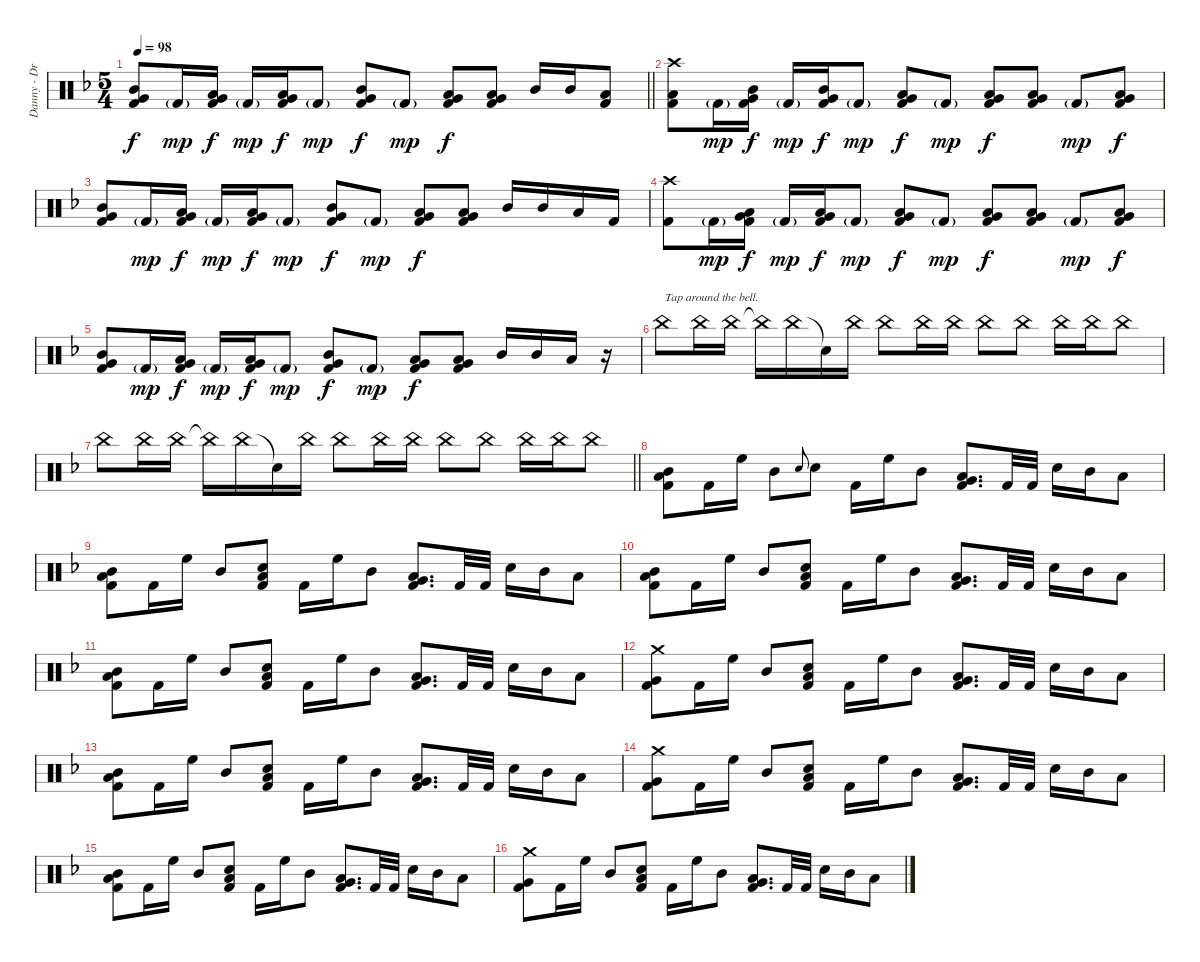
\track ("Danny - Drums" "Danny - Dr") {instrument percussion}
\staff {score}
\articulation defaults
\ts (5 4)
\tempo 98
\clef neutral
\barLineRight lightlight
\ks dminor
("Mid Tom (hit)" "Very Low Tom (hit)" "Kick (hit) 2").8{dy f} "Kick (hit) 2"{g}.16{dy mp} ("Low Tom (hit)" "Very Low Tom (hit)" "Kick (hit) 2").16{dy f} "Kick (hit) 2"{g}.16{dy mp} ("Low Tom (hit)" "Very Low Tom (hit)" "Kick (hit) 2").16{dy f} "Kick (hit) 2"{g}.8{dy mp} ("Mid Tom (hit)" "Very Low Tom (hit)" "Kick (hit) 2").8{dy f} "Kick (hit) 2"{g}.8{dy mp} ("Low Tom (hit)" "Very Low Tom (hit)" "Kick (hit) 2").8{dy f} ("Low Tom (hit)" "Very Low Tom (hit)" "Kick (hit) 2").8 "Mid Tom (hit)".16 "Mid Tom (hit)".16 ("Low Tom (hit)" "Kick (hit) 2").8 |
("Crash high (hit)" "Low Tom (hit)" "Kick (hit) 2").8 "Kick (hit) 2"{g}.16{dy mp} ("Mid Tom (hit)" "Very Low Tom (hit)" "Kick (hit) 2").16{dy f} "Kick (hit) 2"{g}.16{dy mp} ("Mid Tom (hit)" "Very Low Tom (hit)" "Kick (hit) 2").16{dy f} "Kick (hit) 2"{g}.8{dy mp} ("Low Tom (hit)" "Very Low Tom (hit)" "Kick (hit) 2").8{dy f} "Kick (hit) 2"{g}.8{dy mp} ("Low Tom (hit)" "Very Low Tom (hit)" "Kick (hit) 2").8{dy f} ("Low Tom (hit)" "Very Low Tom (hit)" "Kick (hit) 2").8 "Kick (hit) 2"{g}.8{dy mp} ("Low Tom (hit)" "Very Low Tom (hit)" "Kick (hit) 2").8{dy f} |
("Mid Tom (hit)" "Very Low Tom (hit)" "Kick (hit) 2").8 "Kick (hit) 2"{g}.16{dy mp} ("Low Tom (hit)" "Very Low Tom (hit)" "Kick (hit) 2").16{dy f} "Kick (hit) 2"{g}.16{dy mp} ("Low Tom (hit)" "Very Low Tom (hit)" "Kick (hit) 2").16{dy f} "Kick (hit) 2"{g}.8{dy mp} ("Mid Tom (hit)" "Very Low Tom (hit)" "Kick (hit) 2").8{dy f} "Kick (hit) 2"{g}.8{dy mp} ("Low Tom (hit)" "Very Low Tom (hit)" "Kick (hit) 2").8{dy f} ("Low Tom (hit)" "Very Low Tom (hit)" "Kick (hit) 2").8 "Mid Tom (hit)".16 "Mid Tom (hit)".16 "Low Tom (hit)".16 "Kick (hit) 2".16 |
("Crash high (hit)" "Kick (hit) 2").8 "Kick (hit) 2"{g}.16{dy mp} ("Low Tom (hit)" "Very Low Tom (hit)" "Kick (hit) 2").16{dy f} "Kick (hit) 2"{g}.16{dy mp} ("Low Tom (hit)" "Very Low Tom (hit)" "Kick (hit) 2").16{dy f} "Kick (hit) 2"{g}.8{dy mp} ("Low Tom (hit)" "Very Low Tom (hit)" "Kick (hit) 2").8{dy f} "Kick (hit) 2"{g}.8{dy mp} ("Low Tom (hit)" "Very Low Tom (hit)" "Kick (hit) 2").8{dy f} ("Low Tom (hit)" "Very Low Tom (hit)" "Kick (hit) 2").8 "Kick (hit) 2"{g}.8{dy mp} ("Low Tom (hit)" "Very Low Tom (hit)" "Kick (hit) 2").8{dy f} |
("Mid Tom (hit)" "Very Low Tom (hit)" "Kick (hit) 2").8 "Kick (hit) 2"{g}.16{dy mp} ("Low Tom (hit)" "Very Low Tom (hit)" "Kick (hit) 2").16{dy f} "Kick (hit) 2"{g}.16{dy mp} ("Low Tom (hit)" "Very Low Tom (hit)" "Kick (hit) 2").16{dy f} "Kick (hit) 2"{g}.8{dy mp} ("Mid Tom (hit)" "Very Low Tom (hit)" "Kick (hit) 2").8{dy f} "Kick (hit) 2"{g}.8{dy mp} ("Low Tom (hit)" "Very Low Tom (hit)" "Kick (hit) 2").8{dy f} ("Low Tom (hit)" "Very Low Tom (hit)" "Kick (hit) 2").8 "Mid Tom (hit)".16 "Mid Tom (hit)".16 "Low Tom (hit)".16 r.16{volume 2} |
"China (hit)".8{txt "Tap around the bell." volume 11} "China (hit)".16 "China (hit)".16 "China (hit)"{t}.16 "China (hit)".16 "Snare (hit)"{t}.16 "China (hit)".16 "China (hit)".8 "China (hit)".16 "China (hit)".16 "China (hit)".8 "China (hit)".8 "China (hit)".16 "China (hit)".16 "China (hit)".8 |
\barLineRight lightlight "China (hit)".8 "China (hit)".16 "China (hit)".16 "China (hit)"{t}.16 "China (hit)".16 "Snare (hit)"{t}.16 "China (hit)".16 "China (hit)".8 "China (hit)".16 "China (hit)".16 "China (hit)".8 "China (hit)".8 "China (hit)".16 "China (hit)".16 "China (hit)".8
|
("Mid Tom (hit)" "Low Tom (hit)" "Kick (hit) 2").8{volume 13} "Kick (hit) 2".16 "High Floor Tom (hit)".16 "Mid Tom (hit)".8 "Electric Snare (hit)".8{gr onbeat} "Electric Snare (hit)".8 "Kick (hit) 2".16 "High Floor Tom (hit)".16 "Mid Tom (hit)".8 ("Low Tom (hit)" "Very Low Tom (hit)" "Kick (hit) 2").8{d} "Kick (hit) 2".32 "Kick (hit) 2".32 "Electric Snare (hit)".16 "Mid Tom (hit)".16 "Low Tom (hit)".8 |
("Mid Tom (hit)" "Low Tom (hit)" "Kick (hit) 2").8 "Kick (hit) 2".16 "High Floor Tom (hit)".16 "Mid Tom (hit)".8 ("Electric Snare (hit)" "Low Tom (hit)" "Kick (hit) 2").8 "Kick (hit) 2".16 "High Floor Tom (hit)".16 "Mid Tom (hit)".8 ("Low Tom (hit)" "Very Low Tom (hit)" "Kick (hit) 2").8{d} "Kick (hit) 2".32 "Kick (hit) 2".32 "Electric Snare (hit)".16 "Mid Tom (hit)".16 "Low Tom (hit)".8 |
("Mid Tom (hit)" "Low Tom (hit)" "Kick (hit) 2").8 "Kick (hit) 2".16 "High Floor Tom (hit)".16 "Mid Tom (hit)".8 ("Electric Snare (hit)" "Low Tom (hit)" "Kick (hit) 2").8 "Kick (hit) 2".16 "High Floor Tom (hit)".16 "Mid Tom (hit)".8 ("Low Tom (hit)" "Very Low Tom (hit)" "Kick (hit) 2").8{d} "Kick (hit) 2".32 "Kick (hit) 2".32 "Electric Snare (hit)".16 "Mid Tom (hit)".16 "Low Tom (hit)".8 |
("Mid Tom (hit)" "Low Tom (hit)" "Kick (hit) 2").8 "Kick (hit) 2".16 "High Floor Tom (hit)".16 "Mid Tom (hit)".8 ("Electric Snare (hit)" "Low Tom (hit)" "Kick (hit) 2").8 "Kick (hit) 2".16 "High Floor Tom (hit)".16 "Mid Tom (hit)".8 ("Low Tom (hit)" "Very Low Tom (hit)" "Kick (hit) 2").8{d} "Kick (hit) 2".32 "Kick (hit) 2".32 "Electric Snare (hit)".16 "Mid Tom (hit)".16 "Low Tom (hit)".8 |
("Crash medium (hit)" "Very Low Tom (hit)" "Kick (hit) 2").8 "Kick (hit) 2".16 "High Floor Tom (hit)".16 "Mid Tom (hit)".8 ("Electric Snare (hit)" "Low Tom (hit)" "Kick (hit) 2").8 "Kick (hit) 2".16 "High Floor Tom (hit)".16 "Mid Tom (hit)".8 ("Low Tom (hit)" "Very Low Tom (hit)" "Kick (hit) 2").8{d} "Kick (hit) 2".32 "Kick (hit) 2".32 "Electric Snare (hit)".16 "Mid Tom (hit)".16 "Low Tom (hit)".8 |
("Mid Tom (hit)" "Low Tom (hit)" "Kick (hit) 2").8 "Kick (hit) 2".16 "High Floor Tom (hit)".16 "Mid Tom (hit)".8 ("Electric Snare (hit)" "Low Tom (hit)" "Kick (hit) 2").8 "Kick (hit) 2".16 "High Floor Tom (hit)".16 "Mid Tom (hit)".8 ("Low Tom (hit)" "Very Low Tom (hit)" "Kick (hit) 2").8{d} "Kick (hit) 2".32 "Kick (hit) 2".32 "Electric Snare (hit)".16 "Mid Tom (hit)".16 "Low Tom (hit)".8 |
("Crash medium (hit)" "Very Low Tom (hit)" "Kick (hit) 2").8 "Kick (hit) 2".16 "High Floor Tom (hit)".16 "Mid Tom (hit)".8 ("Electric Snare (hit)" "Low Tom (hit)" "Kick (hit) 2").8 "Kick (hit) 2".16 "High Floor Tom (hit)".16 "Mid Tom (hit)".8 ("Low Tom (hit)" "Very Low Tom (hit)" "Kick (hit) 2").8{d} "Kick (hit) 2".32 "Kick (hit) 2".32 "Electric Snare (hit)".16 "Mid Tom (hit)".16 "Low Tom (hit)".8 |
("Mid Tom (hit)" "Low Tom (hit)" "Kick (hit) 2").8 "Kick (hit) 2".16 "High Floor Tom (hit)".16 "Mid Tom (hit)".8 ("Electric Snare (hit)" "Low Tom (hit)" "Kick (hit) 2").8 "Kick (hit) 2".16 "High Floor Tom (hit)".16 "Mid Tom (hit)".8 ("Low Tom (hit)" "Very Low Tom (hit)" "Kick (hit) 2").8{d} "Kick (hit) 2".32 "Kick (hit) 2".32 "Electric Snare (hit)".16 "Mid Tom (hit)".16 "Low Tom (hit)".8 |
("Crash medium (hit)" "Very Low Tom (hit)" "Kick (hit) 2").8 "Kick (hit) 2".16 "High Floor Tom (hit)".16 "Mid Tom (hit)".8 ("Electric Snare (hit)" "Low Tom (hit)" "Kick (hit) 2").8 "Kick (hit) 2".16 "High Floor Tom (hit)".16 "Mid Tom (hit)".8 ("Low Tom (hit)" "Very Low Tom (hit)" "Kick (hit) 2").8{d} "Kick (hit) 2".32 "Kick (hit) 2".32 "Electric Snare (hit)".16 "Mid Tom (hit)".16 "Low Tom (hit)".8
